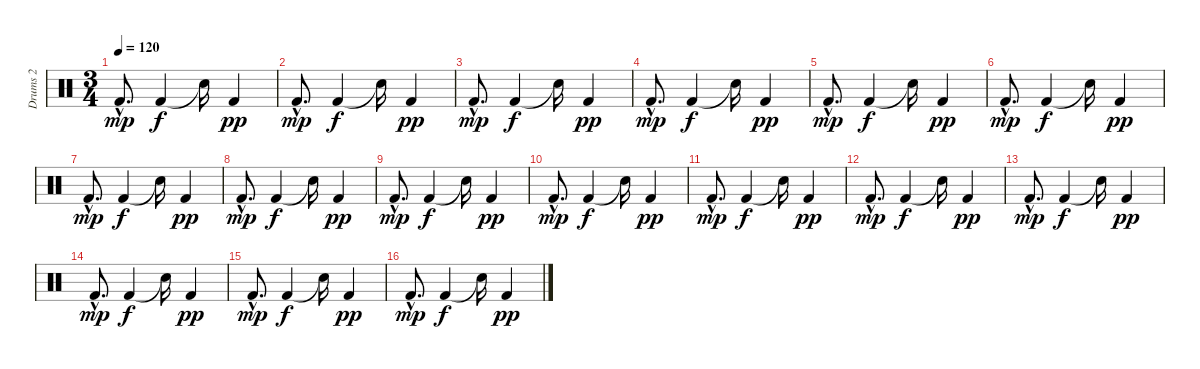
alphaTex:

\track ("Drums 2" "Drums 2") {instrument percussion}
\staff {score}
\articulation defaults
\ts (3 4)
\tempo 120
\clef neutral
\ks c "Kick (hit) 2"{hac}.8{d dy mp} "Kick (hit) 2".4{dy f} "Snare (hit)"{t}.16 "Kick (hit) 2".4{dy pp}
|
"Kick (hit) 2"{hac}.8{d dy mp} "Kick (hit) 2".4{dy f} "Snare (hit)"{t}.16 "Kick (hit) 2".4{dy pp} |
"Kick (hit) 2"{hac}.8{d dy mp} "Kick (hit) 2".4{dy f} "Snare (hit)"{t}.16 "Kick (hit) 2".4{dy pp} |
"Kick (hit) 2"{hac}.8{d dy mp} "Kick (hit) 2".4{dy f} "Snare (hit)"{t}.16 "Kick (hit) 2".4{dy pp} |
"Kick (hit) 2"{hac}.8{d dy mp} "Kick (hit) 2".4{dy f} "Snare (hit)"{t}.16 "Kick (hit) 2".4{dy pp} |
"Kick (hit) 2"{hac}.8{d dy mp} "Kick (hit) 2".4{dy f} "Snare (hit)"{t}.16 "Kick (hit) 2".4{dy pp} |
"Kick (hit) 2"{hac}.8{d dy mp} "Kick (hit) 2".4{dy f} "Snare (hit)"{t}.16 "Kick (hit) 2".4{dy pp} |
"Kick (hit) 2"{hac}.8{d dy mp} "Kick (hit) 2".4{dy f} "Snare (hit)"{t}.16 "Kick (hit) 2".4{dy pp} |
"Kick (hit) 2"{hac}.8{d dy mp} "Kick (hit) 2".4{dy f} "Snare (hit)"{t}.16 "Kick (hit) 2".4{dy pp} |
"Kick (hit) 2"{hac}.8{d dy mp} "Kick (hit) 2".4{dy f} "Snare (hit)"{t}.16 "Kick (hit) 2".4{dy pp} |
"Kick (hit) 2"{hac}.8{d dy mp} "Kick (hit) 2".4{dy f} "Snare (hit)"{t}.16 "Kick (hit) 2".4{dy pp} |
"Kick (hit) 2"{hac}.8{d dy mp} "Kick (hit) 2".4{dy f} "Snare (hit)"{t}.16 "Kick (hit) 2".4{dy pp} |
"Kick (hit) 2"{hac}.8{d dy mp} "Kick (hit) 2".4{dy f} "Snare (hit)"{t}.16 "Kick (hit) 2".4{dy pp} |
"Kick (hit) 2"{hac}.8{d dy mp} "Kick (hit) 2".4{dy f} "Snare (hit)"{t}.16 "Kick (hit) 2".4{dy pp} |
"Kick (hit) 2"{hac}.8{d dy mp} "Kick (hit) 2".4{dy f} "Snare (hit)"{t}.16 "Kick (hit) 2".4{dy pp} |
"Kick (hit) 2"{hac}.8{d dy mp} "Kick (hit) 2".4{dy f} "Snare (hit)"{t}.16 "Kick (hit) 2".4{dy pp}
